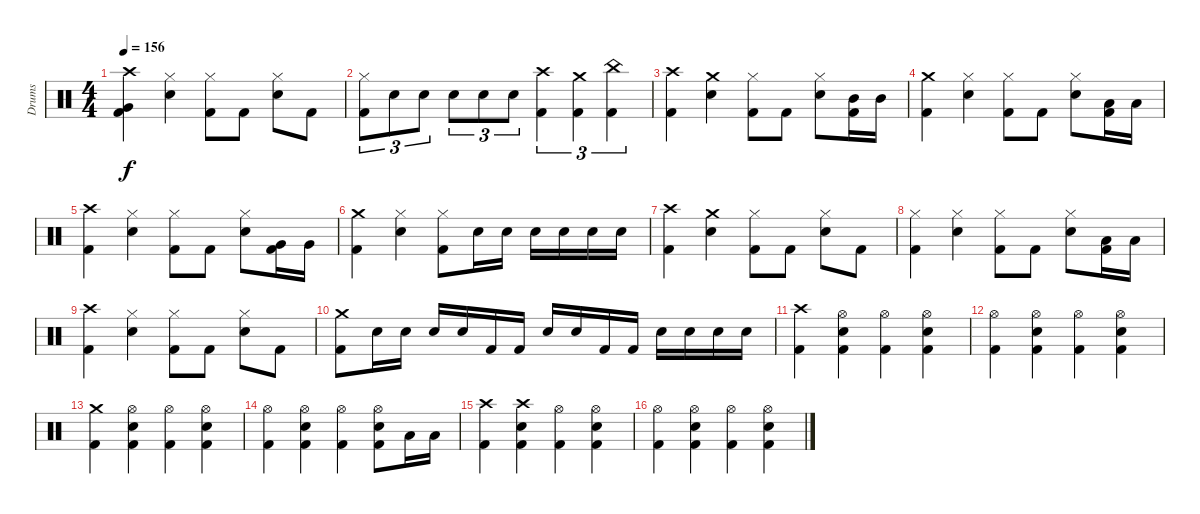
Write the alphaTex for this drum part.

\track ("Drums" "Drums") {instrument percussion}
\staff {score}
\articulation defaults
\ts (4 4)
\tempo 156
\clef neutral
\ks c
("Crash high (hit)" "Very Low Tom (hit)" "Kick (hit) 2").4{dy f} ("Hi-Hat (closed)" "Snare (hit) 2").4 ("Hi-Hat (closed)" "Kick (hit) 2").8 "Kick (hit) 2".8 ("Hi-Hat (closed)" "Snare (hit) 2").8 "Kick (hit) 2".8 |
("Hi-Hat (closed)" "Kick (hit) 2").8{tu (3 2)} "Snare (hit) 2".8{tu (3 2)} "Snare (hit) 2".8{tu (3 2)} "Snare (hit) 2".8{tu (3 2)} "Snare (hit) 2".8{tu (3 2)} "Snare (hit) 2".8{tu (3 2)} ("Crash high (hit)" "Kick (hit) 2").4{tu (3 2)} ("Crash medium (hit)" "Kick (hit) 2").4{tu (3 2)} ("China (hit)" "Kick (hit) 2").4{tu (3 2)} |
("Crash high (hit)" "Kick (hit) 2").4 ("Crash medium (hit)" "Snare (hit) 2").4 ("Hi-Hat (closed)" "Kick (hit) 2").8 "Kick (hit) 2".8 ("Hi-Hat (closed)" "Snare (hit) 2").8 ("Mid Tom (hit)" "Kick (hit) 2").16 "Mid Tom (hit)".16 |
("Crash medium (hit)" "Kick (hit) 2").4 ("Hi-Hat (closed)" "Snare (hit) 2").4 ("Hi-Hat (closed)" "Kick (hit) 2").8 "Kick (hit) 2".8 ("Hi-Hat (closed)" "Snare (hit) 2").8 ("Low Tom (hit)" "Kick (hit) 2").16 "Low Tom (hit)".16 |
("Crash high (hit)" "Kick (hit) 2").4 ("Hi-Hat (closed)" "Snare (hit) 2").4 ("Hi-Hat (closed)" "Kick (hit) 2").8 "Kick (hit) 2".8 ("Hi-Hat (closed)" "Snare (hit) 2").8 ("Very Low Tom (hit)" "Kick (hit) 2").16 "Very Low Tom (hit)".16 |
("Crash medium (hit)" "Kick (hit) 2").4 ("Hi-Hat (closed)" "Snare (hit) 2").4 ("Hi-Hat (closed)" "Kick (hit) 2").8 "Snare (hit) 2".16 "Snare (hit) 2".16 "Snare (hit) 2".16 "Snare (hit) 2".16 "Snare (hit) 2".16 "Snare (hit) 2".16 |
("Crash high (hit)" "Kick (hit) 2").4 ("Crash medium (hit)" "Snare (hit) 2").4 ("Hi-Hat (closed)" "Kick (hit) 2").8 "Kick (hit) 2".8 ("Hi-Hat (closed)" "Snare (hit) 2").8 "Kick (hit) 2".8 |
("Hi-Hat (closed)" "Kick (hit) 2").4 ("Hi-Hat (closed)" "Snare (hit) 2").4 ("Hi-Hat (closed)" "Kick (hit) 2").8 "Kick (hit) 2".8 ("Hi-Hat (closed)" "Snare (hit) 2").8 ("Low Tom (hit)" "Kick (hit) 2").16 "Low Tom (hit)".16 |
("Crash high (hit)" "Kick (hit) 2").4 ("Hi-Hat (closed)" "Snare (hit) 2").4 ("Hi-Hat (closed)" "Kick (hit) 2").8 "Kick (hit) 2".8 ("Hi-Hat (closed)" "Snare (hit) 2").8 "Kick (hit) 2".8 |
("Crash medium (hit)" "Kick (hit) 2").8 "Snare (hit) 2".16 "Snare (hit) 2".16 "Snare (hit) 2".16 "Snare (hit) 2".16 "Kick (hit) 2".16 "Kick (hit) 2".16 "Snare (hit) 2".16 "Snare (hit) 2".16 "Kick (hit) 2".16 "Kick (hit) 2".16 "Snare (hit) 2".16 "Snare (hit) 2".16 "Snare (hit) 2".16 "Snare (hit) 2".16 |
("Crash high (hit)" "Kick (hit) 2").4 ("Hi-Hat (open)" "Snare (hit) 2" "Kick (hit) 2").4 ("Hi-Hat (open)" "Kick (hit) 2").4 ("Hi-Hat (open)" "Snare (hit) 2" "Kick (hit) 2").4 |
("Hi-Hat (open)" "Kick (hit) 2").4 ("Hi-Hat (open)" "Snare (hit) 2" "Kick (hit) 2").4 ("Hi-Hat (open)" "Kick (hit) 2").4 ("Hi-Hat (open)" "Snare (hit) 2" "Kick (hit) 2").4 |
("Crash medium (hit)" "Kick (hit) 2").4 ("Hi-Hat (open)" "Snare (hit) 2" "Kick (hit) 2").4 ("Hi-Hat (open)" "Kick (hit) 2").4 ("Hi-Hat (open)" "Snare (hit) 2" "Kick (hit) 2").4 |
("Hi-Hat (open)" "Kick (hit) 2").4 ("Hi-Hat (open)" "Snare (hit) 2" "Kick (hit) 2").4 ("Hi-Hat (open)" "Kick (hit) 2").4 ("Hi-Hat (open)" "Snare (hit) 2" "Kick (hit) 2").8 "Low Tom (hit)".16 "Low Tom (hit)".16 |
("Crash high (hit)" "Kick (hit) 2").4 ("Crash high (hit)" "Snare (hit) 2" "Kick (hit) 2").4 ("Hi-Hat (open)" "Kick (hit) 2").4 ("Hi-Hat (open)" "Snare (hit) 2" "Kick (hit) 2").4 |
("Hi-Hat (open)" "Kick (hit) 2").4 ("Hi-Hat (open)" "Snare (hit) 2" "Kick (hit) 2").4 ("Hi-Hat (open)" "Kick (hit) 2").4 ("Hi-Hat (open)" "Snare (hit) 2" "Kick (hit) 2").4
